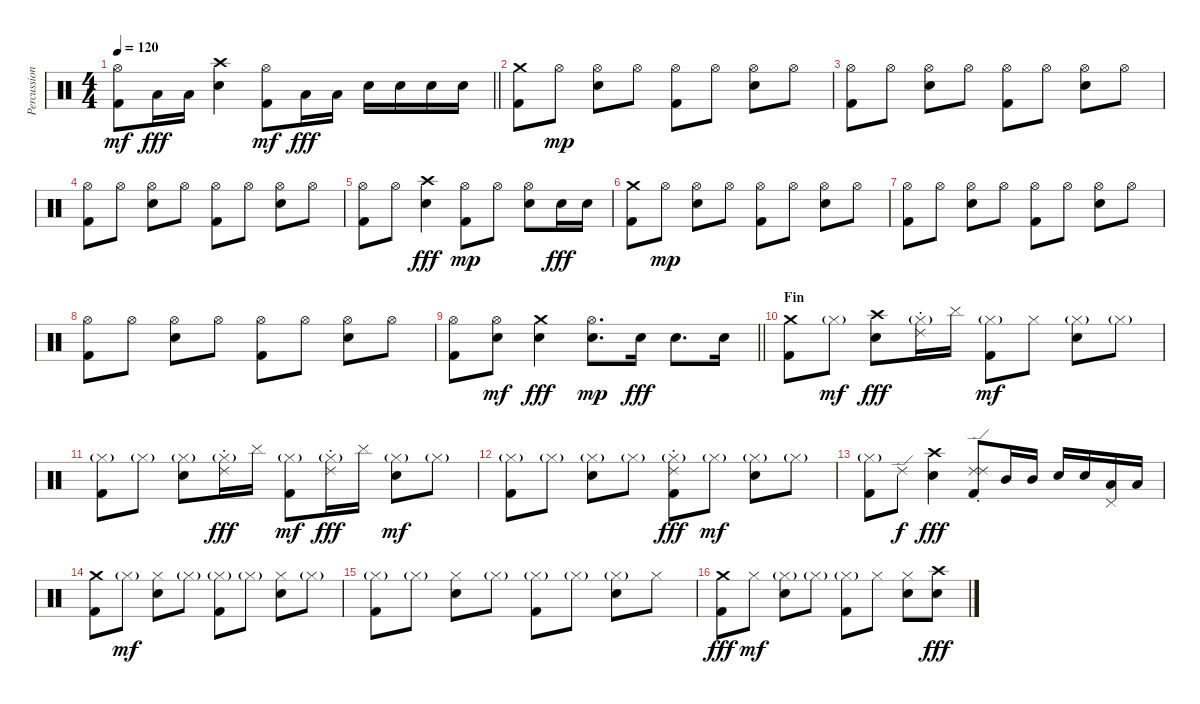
\track ("Percussions" "Percussion") {instrument percussion}
\staff {score}
\articulation defaults
\ts (4 4)
\tempo 120
\clef neutral
\barLineRight lightlight
\ks c
("Kick (hit) 2" "Hi-Hat (open)").8{dy mf} "Low Tom (hit)".16{dy fff} "Low Tom (hit)".16 ("Electric Snare (hit)" "Crash high (hit)").4 ("Kick (hit) 2" "Hi-Hat (open)").8{dy mf} "Low Tom (hit)".16{dy fff} "Low Tom (hit)".16 "Electric Snare (hit)".16 "Electric Snare (hit)".16 "Electric Snare (hit)".16 "Electric Snare (hit)".16 |
("Kick (hit) 2" "Crash medium (hit)").8 "Hi-Hat (open)".8{dy mp} ("Electric Snare (hit)" "Hi-Hat (open)").8 "Hi-Hat (open)".8 ("Kick (hit) 2" "Hi-Hat (open)").8 "Hi-Hat (open)".8 ("Electric Snare (hit)" "Hi-Hat (open)").8 "Hi-Hat (open)".8 |
("Kick (hit) 2" "Hi-Hat (open)").8 "Hi-Hat (open)".8 ("Electric Snare (hit)" "Hi-Hat (open)").8 "Hi-Hat (open)".8 ("Kick (hit) 2" "Hi-Hat (open)").8 "Hi-Hat (open)".8 ("Electric Snare (hit)" "Hi-Hat (open)").8 "Hi-Hat (open)".8 |
("Kick (hit) 2" "Hi-Hat (open)").8 "Hi-Hat (open)".8 ("Electric Snare (hit)" "Hi-Hat (open)").8 "Hi-Hat (open)".8 ("Kick (hit) 2" "Hi-Hat (open)").8 "Hi-Hat (open)".8 ("Electric Snare (hit)" "Hi-Hat (open)").8 "Hi-Hat (open)".8 |
("Kick (hit) 2" "Hi-Hat (open)").8 "Hi-Hat (open)".8 ("Electric Snare (hit)" "Crash high (hit)").4{dy fff} ("Kick (hit) 2" "Hi-Hat (open)").8{dy mp} "Hi-Hat (open)".8 ("Electric Snare (hit)" "Hi-Hat (open)").8 "Electric Snare (hit)".16{dy fff} "Electric Snare (hit)".16 |
("Kick (hit) 2" "Crash medium (hit)").8 "Hi-Hat (open)".8{dy mp} ("Electric Snare (hit)" "Hi-Hat (open)").8 "Hi-Hat (open)".8 ("Kick (hit) 2" "Hi-Hat (open)").8 "Hi-Hat (open)".8 ("Electric Snare (hit)" "Hi-Hat (open)").8 "Hi-Hat (open)".8 |
("Kick (hit) 2" "Hi-Hat (open)").8 "Hi-Hat (open)".8 ("Electric Snare (hit)" "Hi-Hat (open)").8 "Hi-Hat (open)".8 ("Kick (hit) 2" "Hi-Hat (open)").8 "Hi-Hat (open)".8 ("Electric Snare (hit)" "Hi-Hat (open)").8 "Hi-Hat (open)".8 |
("Kick (hit) 2" "Hi-Hat (open)").8 "Hi-Hat (open)".8 ("Electric Snare (hit)" "Hi-Hat (open)").8 "Hi-Hat (open)".8 ("Kick (hit) 2" "Hi-Hat (open)").8 "Hi-Hat (open)".8 ("Electric Snare (hit)" "Hi-Hat (open)").8 "Hi-Hat (open)".8 |
\barLineRight lightlight
("Kick (hit) 2" "Hi-Hat (open)").8 ("Electric Snare (hit)" "Hi-Hat (open)").8{dy mf} ("Electric Snare (hit)" "Crash medium (hit)").4{dy fff} ("Electric Snare (hit)" "Hi-Hat (open)").8{d dy mp} "Electric Snare (hit)".16{dy fff} "Electric Snare (hit)".8{d} "Electric Snare (hit)".16 |
\section ("" "Fin")
("Kick (hit) 2" "Crash medium (hit)").8 "Hi-Hat (closed)"{g}.8{dy mf} ("Electric Snare (hit)" "Crash high (hit)").8{dy fff} ("Hi-Hat (closed)"{g} "Ride (choke) 2").16 "Cymbal (hit)".16 ("Kick (hit) 2" "Hi-Hat (closed)"{g}).8{dy mf} "Hi-Hat (closed)".8 ("Electric Snare (hit)" "Hi-Hat (closed)"{g}).8 "Hi-Hat (closed)"{g}.8 |
("Kick (hit) 2" "Hi-Hat (closed)"{g}).8 "Hi-Hat (closed)"{g}.8 ("Electric Snare (hit)" "Hi-Hat (closed)"{g}).8 ("Hi-Hat (closed)"{g} "Ride (choke) 2").16{dy fff} "Cymbal (hit)".16 ("Kick (hit) 2" "Hi-Hat (closed)"{g}).8{dy mf} ("Hi-Hat (closed)"{g} "Ride (choke) 2").16{dy fff} "Cymbal (hit)".16 ("Electric Snare (hit)" "Hi-Hat (closed)"{g}).8{dy mf} "Hi-Hat (closed)"{g}.8 |
("Kick (hit) 2" "Hi-Hat (closed)"{g}).8 "Hi-Hat (closed)"{g}.8 ("Electric Snare (hit)" "Hi-Hat (closed)"{g}).8 "Hi-Hat (closed)"{g}.8 ("Kick (hit) 2" "Hi-Hat (closed)"{g} "Ride (choke) 2").8{dy fff} "Hi-Hat (closed)"{g}.8{dy mf} ("Electric Snare (hit)" "Hi-Hat (closed)"{g}).8 "Hi-Hat (closed)"{g}.8 |
("Kick (hit) 2" "Hi-Hat (closed)"{g}).8 "Ride (edge) 2".8{dy f} ("Electric Snare (hit)" "Crash high (hit)").4{dy fff} ("Kick (hit) 2" "Ride (edge) 2" "Ride (choke) 2").8 "Mid Tom (hit)".16 "Mid Tom (hit)".16 "Electric Snare (hit)".16 "Electric Snare (hit)".16 ("Low Tom (hit)" "Pedal Hi-Hat (hit)").16 "Low Tom (hit)".16 |
("Kick (hit) 2" "Crash medium (hit)").8 "Hi-Hat (closed)"{g}.8{dy mf} ("Electric Snare (hit)" "Hi-Hat (closed)").8 "Hi-Hat (closed)"{g}.8 ("Kick (hit) 2" "Hi-Hat (closed)"{g}).8 "Hi-Hat (closed)"{g}.8 ("Electric Snare (hit)" "Hi-Hat (closed)").8 "Hi-Hat (closed)"{g}.8 |
("Kick (hit) 2" "Hi-Hat (closed)"{g}).8 "Hi-Hat (closed)"{g}.8 ("Electric Snare (hit)" "Hi-Hat (closed)").8 "Hi-Hat (closed)"{g}.8 ("Kick (hit) 2" "Hi-Hat (closed)"{g}).8 "Hi-Hat (closed)"{g}.8 ("Electric Snare (hit)" "Hi-Hat (closed)"{g}).8 "Hi-Hat (closed)".8 |
("Kick (hit) 2" "Crash medium (hit)").8{dy fff} "Hi-Hat (closed)".8{dy mf} ("Electric Snare (hit)" "Hi-Hat (closed)"{g}).8 "Hi-Hat (closed)"{g}.8 ("Kick (hit) 2" "Hi-Hat (closed)"{g}).8 "Hi-Hat (closed)".8 ("Electric Snare (hit)" "Hi-Hat (closed)").8 ("Electric Snare (hit)" "Crash high (hit)").8{dy fff}
